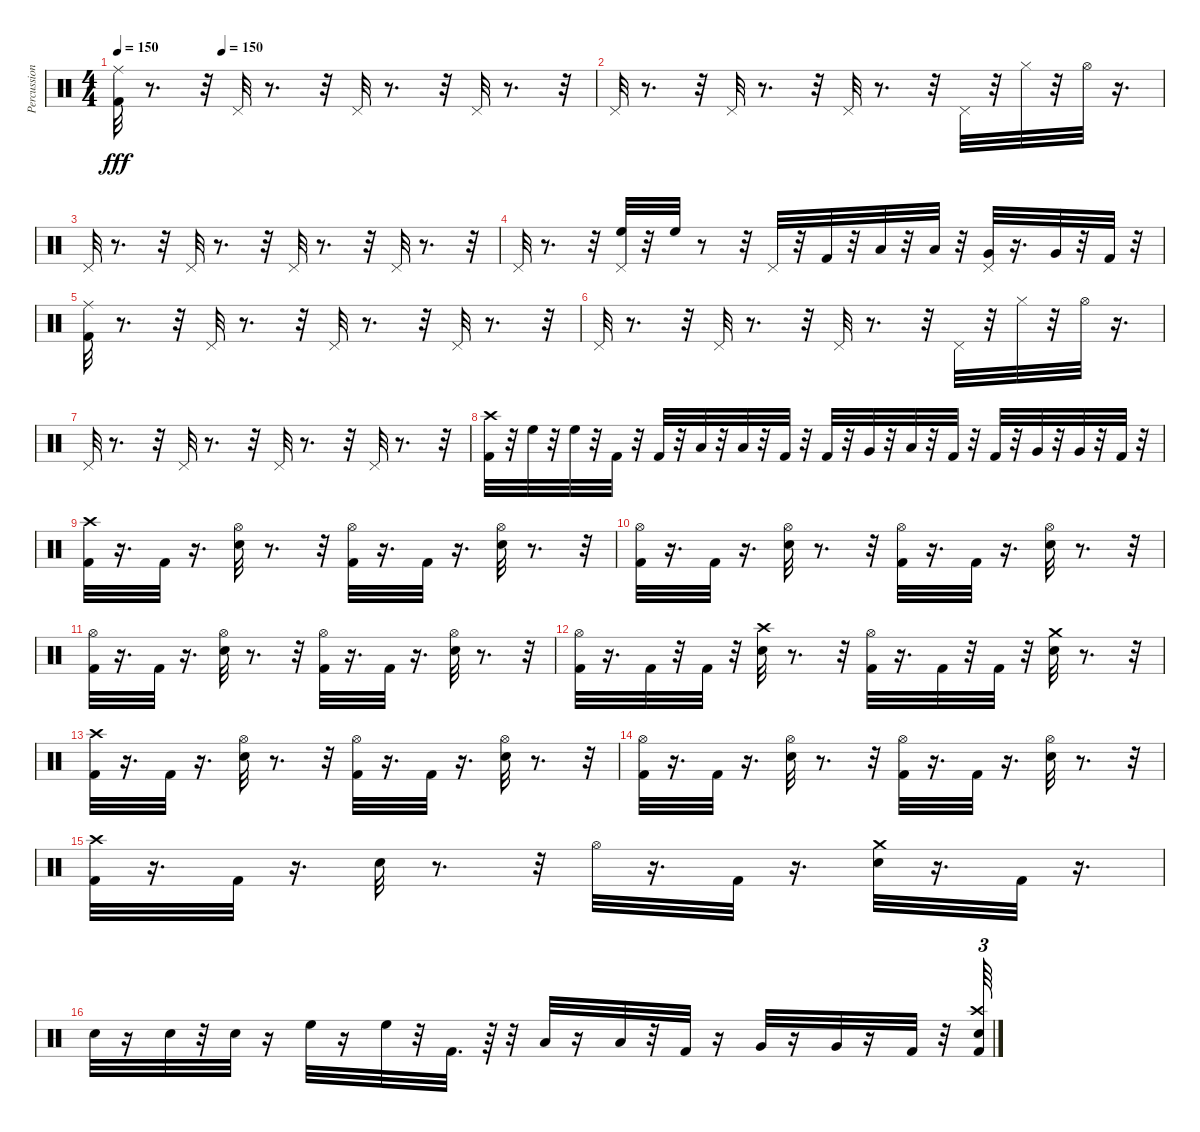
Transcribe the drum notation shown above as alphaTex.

\track ("Percussion" "Percussion") {instrument percussion}
\staff {score}
\articulation defaults
\ts (4 4)
\tempo 150
\tempo (150 0.21875)
\clef neutral
\ks c
("Kick (hit) 2" "Ride (middle)").32{dy fff} r.8{d} r.32 "Pedal Hi-Hat (hit)".32 r.8{d} r.32 "Pedal Hi-Hat (hit)".32 r.8{d} r.32 "Pedal Hi-Hat (hit)".32 r.8{d} r.32 |
"Pedal Hi-Hat (hit)".32 r.8{d} r.32 "Pedal Hi-Hat (hit)".32 r.8{d} r.32 "Pedal Hi-Hat (hit)".32 r.8{d} r.32 "Pedal Hi-Hat (hit)".32 r.32 "Hi-Hat (closed)".32 r.32 "Hi-Hat (open)".32 r.16{d} |
"Pedal Hi-Hat (hit)".32 r.8{d} r.32 "Pedal Hi-Hat (hit)".32 r.8{d} r.32 "Pedal Hi-Hat (hit)".32 r.8{d} r.32 "Pedal Hi-Hat (hit)".32 r.8{d} r.32 |
"Pedal Hi-Hat (hit)".32 r.8{d} r.32 ("Pedal Hi-Hat (hit)" "High Floor Tom (hit)").32 r.32 "High Floor Tom (hit)".32 r.8 r.32 "Pedal Hi-Hat (hit)".32 r.32 "Kick (hit) 2".32 r.32 "Low Tom (hit)".32 r.32 "Low Tom (hit)".32 r.32 ("Pedal Hi-Hat (hit)" "Very Low Tom (hit)").32 r.16{d} "Very Low Tom (hit)".32 r.32 "Kick (hit) 2".32 r.32 |
("Kick (hit) 2" "Ride (middle)").32 r.8{d} r.32 "Pedal Hi-Hat (hit)".32 r.8{d} r.32 "Pedal Hi-Hat (hit)".32 r.8{d} r.32 "Pedal Hi-Hat (hit)".32 r.8{d} r.32 |
"Pedal Hi-Hat (hit)".32 r.8{d} r.32 "Pedal Hi-Hat (hit)".32 r.8{d} r.32 "Pedal Hi-Hat (hit)".32 r.8{d} r.32 "Pedal Hi-Hat (hit)".32 r.32 "Hi-Hat (closed)".32 r.32 "Hi-Hat (open)".32 r.16{d} |
"Pedal Hi-Hat (hit)".32 r.8{d} r.32 "Pedal Hi-Hat (hit)".32 r.8{d} r.32 "Pedal Hi-Hat (hit)".32 r.8{d} r.32 "Pedal Hi-Hat (hit)".32 r.8{d} r.32 |
("Kick (hit) 2" "Crash high (hit)").32 r.32 "High Floor Tom (hit)".32 r.32 "High Floor Tom (hit)".32 r.32 "Kick (hit) 2".32 r.32 "Kick (hit) 2".32 r.32 "Low Tom (hit)".32 r.32 "Low Tom (hit)".32 r.32 "Kick (hit) 2".32 r.32 "Kick (hit) 2".32 r.32 "Very Low Tom (hit)".32 r.32 "Low Tom (hit)".32 r.32 "Kick (hit) 2".32 r.32 "Kick (hit) 2".32 r.32 "Very Low Tom (hit)".32 r.32 "Very Low Tom (hit)".32 r.32 "Kick (hit) 2".32 r.32 |
("Crash high (hit)" "Kick (hit) 2").32 r.16{d} "Kick (hit) 2".32 r.16{d} ("Electric Snare (hit)" "Hi-Hat (open)").32 r.8{d} r.32 ("Hi-Hat (open)" "Kick (hit) 2").32 r.16{d} "Kick (hit) 2".32 r.16{d} ("Electric Snare (hit)" "Hi-Hat (open)").32 r.8{d} r.32 |
("Hi-Hat (open)" "Kick (hit) 2").32 r.16{d} "Kick (hit) 2".32 r.16{d} ("Electric Snare (hit)" "Hi-Hat (open)").32 r.8{d} r.32 ("Kick (hit) 2" "Hi-Hat (open)").32 r.16{d} "Kick (hit) 2".32 r.16{d} ("Electric Snare (hit)" "Hi-Hat (open)").32 r.8{d} r.32 |
("Hi-Hat (open)" "Kick (hit) 2").32 r.16{d} "Kick (hit) 2".32 r.16{d} ("Electric Snare (hit)" "Hi-Hat (open)").32 r.8{d} r.32 ("Hi-Hat (open)" "Kick (hit) 2").32 r.16{d} "Kick (hit) 2".32 r.16{d} ("Electric Snare (hit)" "Hi-Hat (open)").32 r.8{d} r.32 |
("Hi-Hat (open)" "Kick (hit) 2").32 r.16{d} "Kick (hit) 2".32 r.32 "Kick (hit) 2".32 r.32 ("Electric Snare (hit)" "Crash high (hit)").32 r.8{d} r.32 ("Kick (hit) 2" "Hi-Hat (open)").32 r.16{d} "Kick (hit) 2".32 r.32 "Kick (hit) 2".32 r.32 ("Electric Snare (hit)" "Crash medium (hit)").32 r.8{d} r.32 |
("Kick (hit) 2" "Crash high (hit)").32 r.16{d} "Kick (hit) 2".32 r.16{d} ("Electric Snare (hit)" "Hi-Hat (open)").32 r.8{d} r.32 ("Hi-Hat (open)" "Kick (hit) 2").32 r.16{d} "Kick (hit) 2".32 r.16{d} ("Electric Snare (hit)" "Hi-Hat (open)").32 r.8{d} r.32 |
("Hi-Hat (open)" "Kick (hit) 2").32 r.16{d} "Kick (hit) 2".32 r.16{d} ("Electric Snare (hit)" "Hi-Hat (open)").32 r.8{d} r.32 ("Kick (hit) 2" "Hi-Hat (open)").32 r.16{d} "Kick (hit) 2".32 r.16{d} ("Electric Snare (hit)" "Hi-Hat (open)").32 r.8{d} r.32 |
("Kick (hit) 2" "Crash high (hit)").32 r.16{d} "Kick (hit) 2".32 r.16{d} "Electric Snare (hit)".32 r.8{d} r.32 "Hi-Hat (open)".32 r.16{d} "Kick (hit) 2".32 r.16{d} ("Electric Snare (hit)" "Crash medium (hit)").32 r.16{d} "Kick (hit) 2".32 r.16{d} |
"Electric Snare (hit)".32 r.16 "Snare (hit) 2".32 r.32 "Snare (hit) 2".32 r.16 "High Floor Tom (hit)".32 r.16 "High Floor Tom (hit)".32 r.32 "Kick (hit) 2".32{d} r.64 r.32 "Low Tom (hit)".32 r.16 "Low Tom (hit)".32 r.32 "Kick (hit) 2".32 r.16 "Very Low Tom (hit)".32 r.16 "Very Low Tom (hit)".32 r.16 "Kick (hit) 2".32 r.32 ("Crash high (hit)" "Kick (hit) 2" "Snare (hit) 2").64{tu (3 2)}
